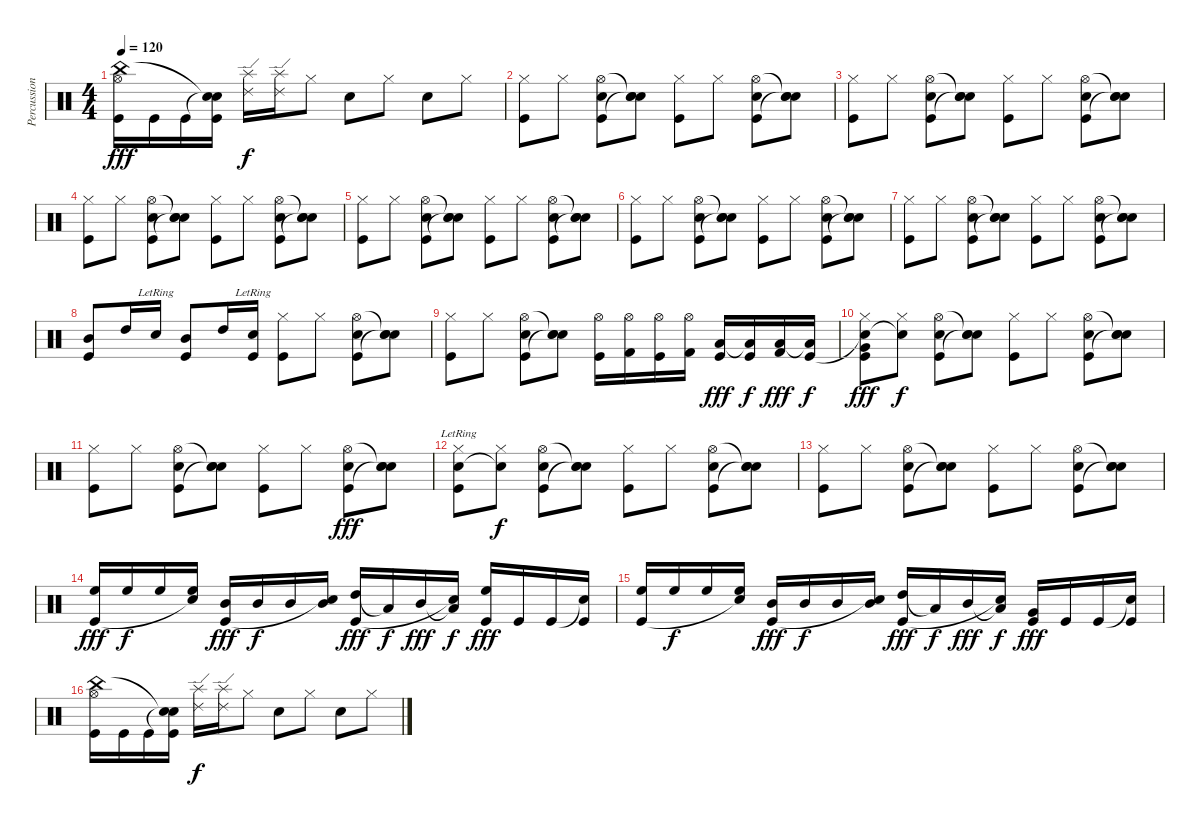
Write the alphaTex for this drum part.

\track ("Percussion" "Percussion") {instrument percussion}
\staff {score}
\articulation defaults
\ts (4 4)
\tempo 120
\clef neutral
\ks c
("Hi-Hat (open)" "China (hit)" "Kick (hit)").16{dy fff} "Kick (hit)".16 "Kick (hit)".16 ("Snare (hit)"{t} "Snare (hit)"{t} "Kick (hit)").16 ("Ride (edge) 2" "Splash (hit)").16{dy f} ("Ride (edge) 2" "Splash (hit)").16 "Hi-Hat (closed)".8 "Snare (hit) 2".8 "Hi-Hat (closed)".8 "Snare (hit) 2".8 "Hi-Hat (closed)".8 |
("Hi-Hat (closed)" "Kick (hit)").8 "Hi-Hat (closed)".8 ("Hi-Hat (open)" "Snare (hit) 2" "Kick (hit)").8 ("Snare (hit)"{t} "Snare (hit) 2" "Snare (hit)"{t}).8 ("Hi-Hat (closed)" "Kick (hit)").8 "Hi-Hat (closed)".8 ("Hi-Hat (open)" "Snare (hit) 2" "Kick (hit)").8 ("Snare (hit)"{t} "Snare (hit) 2" "Snare (hit)"{t}).8 |
("Hi-Hat (closed)" "Kick (hit)").8 "Hi-Hat (closed)".8 ("Hi-Hat (open)" "Snare (hit) 2" "Kick (hit)").8 ("Snare (hit)"{t} "Snare (hit) 2" "Snare (hit)"{t}).8 ("Hi-Hat (closed)" "Kick (hit)").8 "Hi-Hat (closed)".8 ("Hi-Hat (open)" "Snare (hit) 2" "Kick (hit)").8 ("Snare (hit)"{t} "Snare (hit) 2" "Snare (hit)"{t}).8 |
("Hi-Hat (closed)" "Kick (hit)").8 "Hi-Hat (closed)".8 ("Hi-Hat (open)" "Snare (hit) 2" "Kick (hit)").8 ("Snare (hit)"{t} "Snare (hit) 2" "Snare (hit)"{t}).8 ("Hi-Hat (closed)" "Kick (hit)").8 "Hi-Hat (closed)".8 ("Hi-Hat (open)" "Snare (hit) 2" "Kick (hit)").8 ("Snare (hit)"{t} "Snare (hit) 2" "Snare (hit)"{t}).8 |
("Hi-Hat (closed)" "Kick (hit)").8 "Hi-Hat (closed)".8 ("Hi-Hat (open)" "Snare (hit) 2" "Kick (hit)").8 ("Snare (hit)"{t} "Snare (hit) 2" "Snare (hit)"{t}).8 ("Hi-Hat (closed)" "Kick (hit)").8 "Hi-Hat (closed)".8 ("Hi-Hat (open)" "Snare (hit) 2" "Kick (hit)").8 ("Snare (hit)"{t} "Snare (hit) 2" "Snare (hit)"{t}).8 |
("Hi-Hat (closed)" "Kick (hit)").8 "Hi-Hat (closed)".8 ("Hi-Hat (open)" "Snare (hit) 2" "Kick (hit)").8 ("Snare (hit)"{t} "Snare (hit) 2" "Snare (hit)"{t}).8 ("Hi-Hat (closed)" "Kick (hit)").8 "Hi-Hat (closed)".8 ("Hi-Hat (open)" "Snare (hit) 2" "Kick (hit)").8 ("Snare (hit)"{t} "Snare (hit) 2" "Snare (hit)"{t}).8 |
("Hi-Hat (closed)" "Kick (hit)").8 "Hi-Hat (closed)".8 ("Hi-Hat (open)" "Snare (hit) 2" "Kick (hit)").8 ("Snare (hit)"{t} "Snare (hit) 2" "Snare (hit)"{t}).8 ("Hi-Hat (closed)" "Kick (hit)").8 "Hi-Hat (closed)".8 ("Hi-Hat (open)" "Snare (hit) 2" "Kick (hit)").8 ("Snare (hit)"{t} "Snare (hit) 2" "Snare (hit)"{t}).8 |
("Mid Tom (hit)" "Kick (hit)").8 "High Tom (hit)".16 "Snare (hit) 2"{lr}.16 ("Mid Tom (hit)" "Kick (hit)").8 "High Tom (hit)".16 ("Snare (hit) 2"{lr} "Kick (hit)").16 ("Hi-Hat (closed)" "Kick (hit)").8 "Hi-Hat (closed)".8 ("Hi-Hat (open)" "Snare (hit) 2" "Kick (hit)").8 ("Snare (hit)"{t} "Snare (hit) 2" "Snare (hit)"{t}).8 |
("Hi-Hat (closed)" "Kick (hit)").8 "Hi-Hat (closed)".8 ("Hi-Hat (open)" "Snare (hit) 2" "Kick (hit)").8 ("Snare (hit)"{t} "Snare (hit) 2" "Snare (hit)"{t}).8 ("Hi-Hat (open)" "Kick (hit)").16 ("Hi-Hat (open)" "Kick (hit) 2").16 ("Hi-Hat (open)" "Kick (hit)").16 ("Hi-Hat (open)" "Kick (hit) 2").16 ("Low Tom (hit)" "Kick (hit)").16{dy fff} ("Low Tom (hit)"{t} "Kick (hit)").16{dy f} ("Low Tom (hit)" "Kick (hit) 2").16{dy fff} ("Low Tom (hit)"{t} "Kick (hit)").16{dy f} |
("Hi-Hat (closed)" "Snare (hit)"{t} "Very Low Tom (hit)" "Kick (hit)").8{dy fff} ("Hi-Hat (closed)" "Snare (hit)"{t}).8{dy f} ("Hi-Hat (open)" "Snare (hit) 2" "Kick (hit)").8 ("Snare (hit)"{t} "Snare (hit) 2" "Snare (hit)"{t}).8 ("Hi-Hat (closed)" "Kick (hit)").8 "Hi-Hat (closed)".8 ("Hi-Hat (open)" "Snare (hit) 2" "Kick (hit)").8 ("Snare (hit)"{t} "Snare (hit) 2" "Snare (hit)"{t}).8 |
("Hi-Hat (closed)" "Kick (hit)").8 "Hi-Hat (closed)".8 ("Hi-Hat (open)" "Snare (hit) 2" "Kick (hit)").8 ("Snare (hit)"{t} "Snare (hit) 2" "Snare (hit)"{t}).8 ("Hi-Hat (closed)" "Kick (hit)").8 "Hi-Hat (closed)".8 ("Hi-Hat (open)" "Snare (hit) 2" "Kick (hit)").8{dy fff} ("Snare (hit)"{t} "Snare (hit) 2" "Snare (hit)"{t}).8 |
("Hi-Hat (closed)" "Snare (hit) 2"{lr} "Kick (hit)").8 ("Hi-Hat (closed)" "Snare (hit) 2"{t}).8{dy f} ("Hi-Hat (open)" "Snare (hit) 2" "Kick (hit)").8 ("Snare (hit)"{t} "Snare (hit) 2" "Snare (hit)"{t}).8 ("Hi-Hat (closed)" "Kick (hit)").8 "Hi-Hat (closed)".8 ("Hi-Hat (open)" "Snare (hit) 2" "Kick (hit)").8 ("Snare (hit)"{t} "Snare (hit) 2" "Snare (hit)"{t}).8 |
("Hi-Hat (closed)" "Kick (hit)").8 "Hi-Hat (closed)".8 ("Hi-Hat (open)" "Snare (hit) 2" "Kick (hit)").8 ("Snare (hit)"{t} "Snare (hit) 2" "Snare (hit)"{t}).8 ("Hi-Hat (closed)" "Kick (hit)").8 "Hi-Hat (closed)".8 ("Hi-Hat (open)" "Snare (hit) 2" "Kick (hit)").8 ("Snare (hit)"{t} "Snare (hit) 2" "Snare (hit)"{t}).8 |
("High Floor Tom (hit)" "Kick (hit)").16{dy fff} "High Floor Tom (hit)".16{dy f} "High Floor Tom (hit)".16 ("High Floor Tom (hit)" "Snare (hit)"{t}).16 ("Mid Tom (hit)" "Kick (hit)").16{dy fff} "Mid Tom (hit)".16{dy f} "Mid Tom (hit)".16 ("Mid Tom (hit)" "Snare (hit)"{t}).16 ("High Tom (hit)" "Kick (hit)").16{dy fff} "Low Tom (hit)"{t}.16{dy f} "Mid Tom (hit)".16{dy fff} ("Low Tom (hit)"{t} "Snare (hit)"{t}).16{dy f} ("High Floor Tom (hit)" "Kick (hit)").16{dy fff} "Kick (hit)".16 "Kick (hit)".16 ("Snare (hit)"{t} "Kick (hit)").16 |
("High Floor Tom (hit)" "Kick (hit)").16 "High Floor Tom (hit)".16{dy f} "High Floor Tom (hit)".16 ("High Floor Tom (hit)" "Snare (hit)"{t}).16 ("Mid Tom (hit)" "Kick (hit)").16{dy fff} "Mid Tom (hit)".16{dy f} "Mid Tom (hit)".16 ("Mid Tom (hit)" "Snare (hit)"{t}).16 ("High Tom (hit)" "Kick (hit)").16{dy fff} "Low Tom (hit)"{t}.16{dy f} "Mid Tom (hit)".16{dy fff} ("Low Tom (hit)"{t} "Snare (hit)"{t}).16{dy f} ("Very Low Tom (hit)" "Kick (hit)").16{dy fff} "Kick (hit)".16 "Kick (hit)".16 ("Snare (hit)"{t} "Kick (hit)").16 |
("Hi-Hat (open)" "China (hit)" "Kick (hit)").16 "Kick (hit)".16 "Kick (hit)".16 ("Snare (hit)"{t} "Snare (hit)"{t} "Kick (hit)").16 ("Ride (edge) 2" "Splash (hit)").16{dy f} ("Ride (edge) 2" "Splash (hit)").16 "Hi-Hat (closed)".8 "Snare (hit) 2".8{volume 16} "Hi-Hat (closed)".8 "Snare (hit) 2".8 "Hi-Hat (closed)".8
